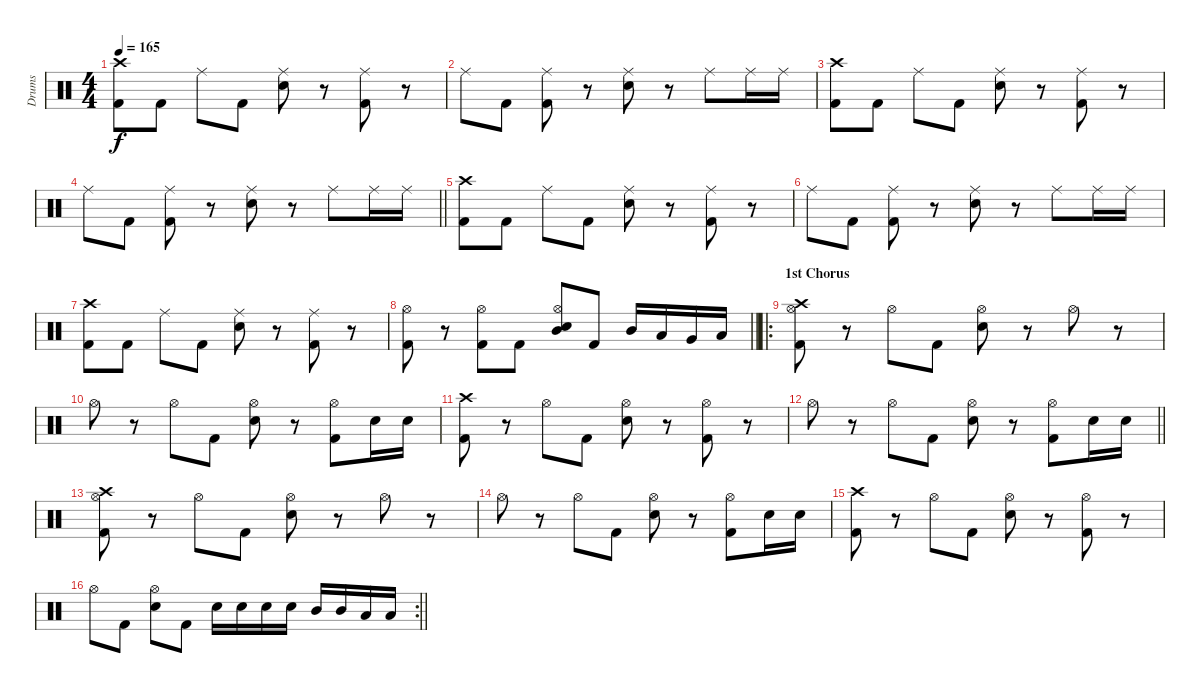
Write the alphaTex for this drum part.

\track ("Drums" "Drums") {instrument percussion}
\staff {score}
\articulation defaults
\ts (4 4)
\tempo 165
\clef neutral
\ks c
("Crash high (hit)" "Kick (hit) 2").8{dy f} "Kick (hit) 2".8 "Ride (middle)".8 "Kick (hit) 2".8 ("Ride (middle)" "Electric Snare (hit)").8 r.8 ("Ride (middle)" "Kick (hit) 2").8 r.8 |
"Ride (middle)".8 "Kick (hit) 2".8 ("Ride (middle)" "Kick (hit) 2").8 r.8 ("Ride (middle)" "Electric Snare (hit)").8 r.8 "Ride (middle)".8 "Ride (middle)".16 "Ride (middle)".16 |
("Crash high (hit)" "Kick (hit) 2").8 "Kick (hit) 2".8 "Ride (middle)".8 "Kick (hit) 2".8 ("Ride (middle)" "Electric Snare (hit)").8 r.8 ("Ride (middle)" "Kick (hit) 2").8 r.8 |
\barLineRight lightlight "Ride (middle)".8 "Kick (hit) 2".8
("Ride (middle)" "Kick (hit) 2").8 r.8 ("Ride (middle)" "Electric Snare (hit)").8 r.8 "Ride (middle)".8 "Ride (middle)".16 "Ride (middle)".16 |
("Crash high (hit)" "Kick (hit) 2").8 "Kick (hit) 2".8 "Ride (middle)".8 "Kick (hit) 2".8 ("Ride (middle)" "Electric Snare (hit)").8 r.8 ("Ride (middle)" "Kick (hit) 2").8 r.8 |
"Ride (middle)".8 "Kick (hit) 2".8 ("Ride (middle)" "Kick (hit) 2").8 r.8 ("Ride (middle)" "Electric Snare (hit)").8 r.8 "Ride (middle)".8 "Ride (middle)".16 "Ride (middle)".16 |
("Crash high (hit)" "Kick (hit) 2").8 "Kick (hit) 2".8 "Ride (middle)".8 "Kick (hit) 2".8 ("Ride (middle)" "Electric Snare (hit)").8 r.8 ("Ride (middle)" "Kick (hit) 2").8 r.8 |
\barLineRight lightlight
("Hi-Hat (open)" "Kick (hit) 2").8 r.8 ("Hi-Hat (open)" "Kick (hit) 2").8 "Kick (hit) 2".8 ("Hi-Hat (open)" "Mid Tom (hit)" "Electric Snare (hit)").8 "Kick (hit) 2".8 "Mid Tom (hit)".16 "Low Tom (hit)".16 "Very Low Tom (hit)".16 "Low Floor Tom (hit)".16 |
\ro
\section ("" "1st Chorus")
("Crash high (hit)" "Hi-Hat (open)" "Kick (hit) 2").8 r.8 "Hi-Hat (open)".8 "Kick (hit) 2".8 ("Hi-Hat (open)" "Electric Snare (hit)").8 r.8 "Hi-Hat (open)".8 r.8 |
"Hi-Hat (open)".8 r.8 "Hi-Hat (open)".8 "Kick (hit) 2".8 ("Hi-Hat (open)" "Electric Snare (hit)").8 r.8 ("Hi-Hat (open)" "Kick (hit) 2").8 "Electric Snare (hit)".16 "Electric Snare (hit)".16 |
("Crash high (hit)" "Kick (hit) 2").8 r.8 "Hi-Hat (open)".8 "Kick (hit) 2".8 ("Hi-Hat (open)" "Electric Snare (hit)").8 r.8 ("Hi-Hat (open)" "Kick (hit) 2").8 r.8 |
\barLineRight lightlight "Hi-Hat (open)".8
r.8 "Hi-Hat (open)".8 "Kick (hit) 2".8 ("Hi-Hat (open)" "Electric Snare (hit)").8 r.8 ("Hi-Hat (open)" "Kick (hit) 2").8 "Electric Snare (hit)".16 "Electric Snare (hit)".16 |
("Crash high (hit)" "Hi-Hat (open)" "Kick (hit) 2").8 r.8 "Hi-Hat (open)".8 "Kick (hit) 2".8 ("Hi-Hat (open)" "Electric Snare (hit)").8 r.8 "Hi-Hat (open)".8 r.8 |
"Hi-Hat (open)".8 r.8 "Hi-Hat (open)".8 "Kick (hit) 2".8 ("Hi-Hat (open)" "Electric Snare (hit)").8 r.8 ("Hi-Hat (open)" "Kick (hit) 2").8 "Electric Snare (hit)".16 "Electric Snare (hit)".16 |
("Crash high (hit)" "Kick (hit) 2").8 r.8 "Hi-Hat (open)".8 "Kick (hit) 2".8 ("Hi-Hat (open)" "Electric Snare (hit)").8 r.8 ("Hi-Hat (open)" "Kick (hit) 2").8 r.8 |
\rc 2
\barLineRight lightlight "Hi-Hat (open)".8 "Kick (hit) 2".8
("Hi-Hat (open)" "Electric Snare (hit)").8 "Kick (hit) 2".8 "Electric Snare (hit)".16 "Electric Snare (hit)".16 "Electric Snare (hit)".16 "Electric Snare (hit)".16 "Mid Tom (hit)".16 "Mid Tom (hit)".16 "Low Tom (hit)".16 "Low Tom (hit)".16
